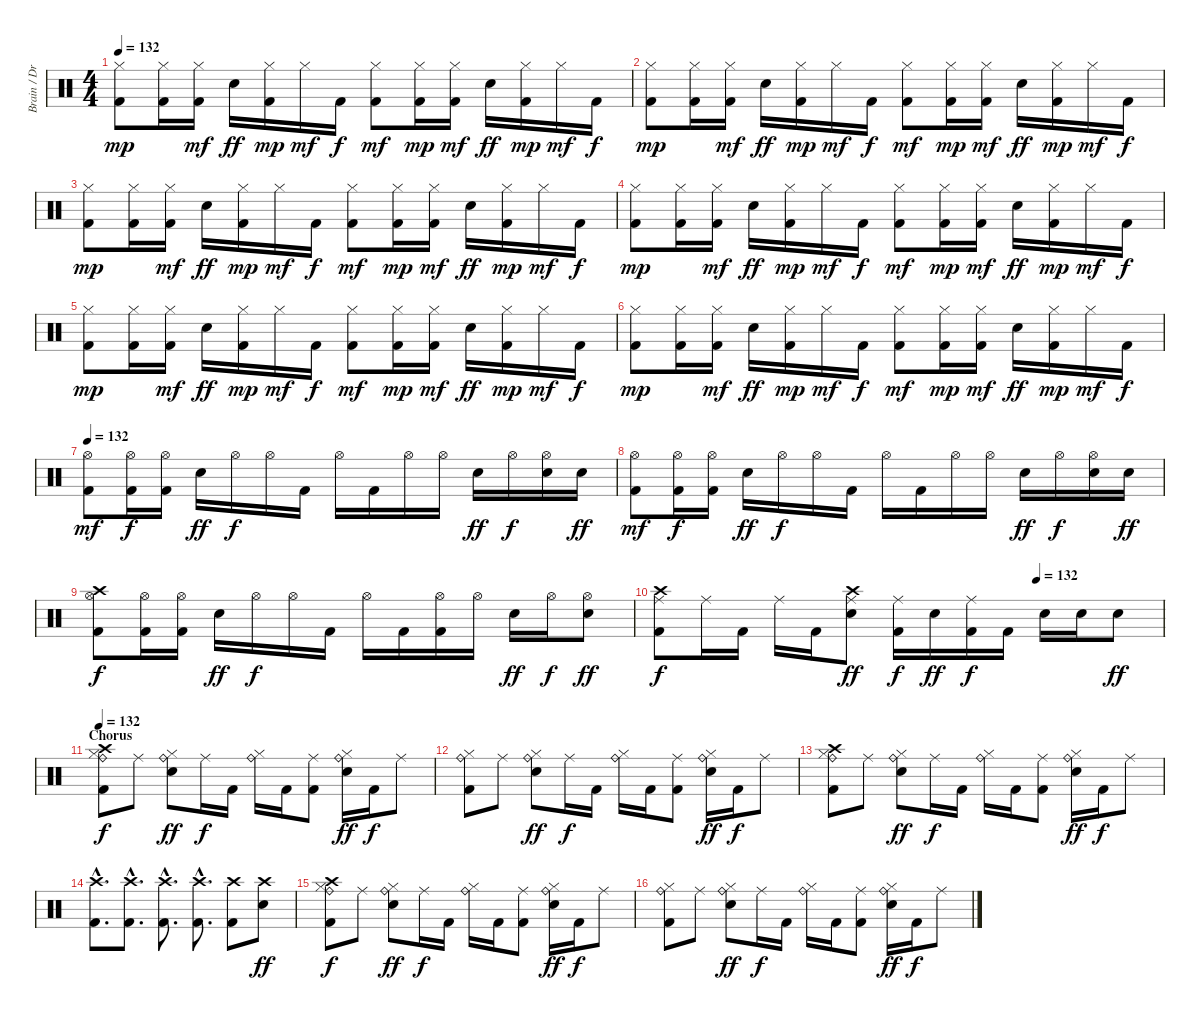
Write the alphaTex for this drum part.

\track ("Brain / Drums" "Brain / Dr") {instrument percussion}
\staff {score}
\articulation defaults
\ts (4 4)
\tempo 132
\clef neutral
\ks c
("Hi-Hat (closed)" "Kick (hit) 2").8{dy mp} ("Hi-Hat (closed)" "Kick (hit) 2").16 ("Hi-Hat (closed)" "Kick (hit) 2").16{dy mf} "Electric Snare (hit)".16{dy ff} ("Hi-Hat (closed)" "Kick (hit) 2").16{dy mp} "Hi-Hat (closed)".16{dy mf} "Kick (hit) 2".16{dy f} ("Hi-Hat (closed)" "Kick (hit) 2").8{dy mf} ("Hi-Hat (closed)" "Kick (hit) 2").16{dy mp} ("Hi-Hat (closed)" "Kick (hit) 2").16{dy mf} "Electric Snare (hit)".16{dy ff} ("Hi-Hat (closed)" "Kick (hit) 2").16{dy mp} "Hi-Hat (closed)".16{dy mf} "Kick (hit) 2".16{dy f} |
("Hi-Hat (closed)" "Kick (hit) 2").8{dy mp} ("Hi-Hat (closed)" "Kick (hit) 2").16 ("Hi-Hat (closed)" "Kick (hit) 2").16{dy mf} "Electric Snare (hit)".16{dy ff} ("Hi-Hat (closed)" "Kick (hit) 2").16{dy mp} "Hi-Hat (closed)".16{dy mf} "Kick (hit) 2".16{dy f} ("Hi-Hat (closed)" "Kick (hit) 2").8{dy mf} ("Hi-Hat (closed)" "Kick (hit) 2").16{dy mp} ("Hi-Hat (closed)" "Kick (hit) 2").16{dy mf} "Electric Snare (hit)".16{dy ff} ("Hi-Hat (closed)" "Kick (hit) 2").16{dy mp} "Hi-Hat (closed)".16{dy mf} "Kick (hit) 2".16{dy f} |
("Hi-Hat (closed)" "Kick (hit) 2").8{dy mp} ("Hi-Hat (closed)" "Kick (hit) 2").16 ("Hi-Hat (closed)" "Kick (hit) 2").16{dy mf} "Electric Snare (hit)".16{dy ff} ("Hi-Hat (closed)" "Kick (hit) 2").16{dy mp} "Hi-Hat (closed)".16{dy mf} "Kick (hit) 2".16{dy f} ("Hi-Hat (closed)" "Kick (hit) 2").8{dy mf} ("Hi-Hat (closed)" "Kick (hit) 2").16{dy mp} ("Hi-Hat (closed)" "Kick (hit) 2").16{dy mf} "Electric Snare (hit)".16{dy ff} ("Hi-Hat (closed)" "Kick (hit) 2").16{dy mp} "Hi-Hat (closed)".16{dy mf} "Kick (hit) 2".16{dy f} |
("Hi-Hat (closed)" "Kick (hit) 2").8{dy mp} ("Hi-Hat (closed)" "Kick (hit) 2").16 ("Hi-Hat (closed)" "Kick (hit) 2").16{dy mf} "Electric Snare (hit)".16{dy ff} ("Hi-Hat (closed)" "Kick (hit) 2").16{dy mp} "Hi-Hat (closed)".16{dy mf} "Kick (hit) 2".16{dy f} ("Hi-Hat (closed)" "Kick (hit) 2").8{dy mf} ("Hi-Hat (closed)" "Kick (hit) 2").16{dy mp} ("Hi-Hat (closed)" "Kick (hit) 2").16{dy mf} "Electric Snare (hit)".16{dy ff} ("Hi-Hat (closed)" "Kick (hit) 2").16{dy mp} "Hi-Hat (closed)".16{dy mf} "Kick (hit) 2".16{dy f} |
("Hi-Hat (closed)" "Kick (hit) 2").8{dy mp} ("Hi-Hat (closed)" "Kick (hit) 2").16 ("Hi-Hat (closed)" "Kick (hit) 2").16{dy mf} "Electric Snare (hit)".16{dy ff} ("Hi-Hat (closed)" "Kick (hit) 2").16{dy mp} "Hi-Hat (closed)".16{dy mf} "Kick (hit) 2".16{dy f} ("Hi-Hat (closed)" "Kick (hit) 2").8{dy mf} ("Hi-Hat (closed)" "Kick (hit) 2").16{dy mp} ("Hi-Hat (closed)" "Kick (hit) 2").16{dy mf} "Electric Snare (hit)".16{dy ff} ("Hi-Hat (closed)" "Kick (hit) 2").16{dy mp} "Hi-Hat (closed)".16{dy mf} "Kick (hit) 2".16{dy f} |
("Hi-Hat (closed)" "Kick (hit) 2").8{dy mp} ("Hi-Hat (closed)" "Kick (hit) 2").16 ("Hi-Hat (closed)" "Kick (hit) 2").16{dy mf} "Electric Snare (hit)".16{dy ff} ("Hi-Hat (closed)" "Kick (hit) 2").16{dy mp} "Hi-Hat (closed)".16{dy mf} "Kick (hit) 2".16{dy f} ("Hi-Hat (closed)" "Kick (hit) 2").8{dy mf} ("Hi-Hat (closed)" "Kick (hit) 2").16{dy mp} ("Hi-Hat (closed)" "Kick (hit) 2").16{dy mf} "Electric Snare (hit)".16{dy ff} ("Hi-Hat (closed)" "Kick (hit) 2").16{dy mp} "Hi-Hat (closed)".16{dy mf} "Kick (hit) 2".16{dy f} |
\tempo 132
("Hi-Hat (open)" "Kick (hit) 2").8{dy mf} ("Hi-Hat (open)" "Kick (hit) 2").16{dy f} ("Hi-Hat (open)" "Kick (hit) 2").16 "Electric Snare (hit)".16{dy ff} "Hi-Hat (open)".16{dy f} "Hi-Hat (open)".16 "Kick (hit) 2".16 "Hi-Hat (open)".16 "Kick (hit) 2".16 "Hi-Hat (open)".16 "Hi-Hat (open)".16 "Electric Snare (hit)".16{dy ff} "Hi-Hat (open)".16{dy f} ("Hi-Hat (open)" "Electric Snare (hit)").16 "Electric Snare (hit)".16{dy ff} |
("Hi-Hat (open)" "Kick (hit) 2").8{dy mf} ("Hi-Hat (open)" "Kick (hit) 2").16{dy f} ("Hi-Hat (open)" "Kick (hit) 2").16 "Electric Snare (hit)".16{dy ff} "Hi-Hat (open)".16{dy f} "Hi-Hat (open)".16 "Kick (hit) 2".16 "Hi-Hat (open)".16 "Kick (hit) 2".16 "Hi-Hat (open)".16 "Hi-Hat (open)".16 "Electric Snare (hit)".16{dy ff} "Hi-Hat (open)".16{dy f} ("Hi-Hat (open)" "Electric Snare (hit)").16 "Electric Snare (hit)".16{dy ff} |
("Crash high (hit)" "Hi-Hat (open)" "Kick (hit) 2").8{dy f} ("Hi-Hat (open)" "Kick (hit) 2").16 ("Hi-Hat (open)" "Kick (hit) 2").16 "Electric Snare (hit)".16{dy ff} "Hi-Hat (open)".16{dy f} "Hi-Hat (open)".16 "Kick (hit) 2".16 "Hi-Hat (open)".16 "Kick (hit) 2".16 ("Hi-Hat (open)" "Kick (hit) 2").16 "Hi-Hat (open)".16 "Electric Snare (hit)".16{dy ff} "Hi-Hat (open)".16{dy f} ("Hi-Hat (open)" "Electric Snare (hit)").8{dy ff} |
\tempo (132 0.75)
("Crash high (hit)" "Ride (middle)" "Kick (hit) 2").8{dy f} "Ride (middle)".16 "Kick (hit) 2".16 "Ride (middle)".16 "Kick (hit) 2".16 ("Crash high (hit)" "Ride (middle)" "Electric Snare (hit)").8{dy ff} ("Ride (middle)" "Kick (hit) 2").16{dy f} "Electric Snare (hit)".16{dy ff} ("Ride (middle)" "Kick (hit) 2").16{dy f} "Kick (hit) 2".16 "Electric Snare (hit)".16 "Electric Snare (hit)".16 "Electric Snare (hit)".8{dy ff} |
\section ("" "Chorus")
\tempo 132
("Crash high (hit)" "Hi-Hat (closed)" "Ride (bell)" "Kick (hit) 2").8{dy f} "Ride (middle)".8 ("Hi-Hat (closed)" "Ride (bell)" "Electric Snare (hit)").8{dy ff} "Ride (middle)".16{dy f} "Kick (hit) 2".16 ("Hi-Hat (closed)" "Ride (bell)").16 "Kick (hit) 2".16 ("Ride (middle)" "Kick (hit) 2").8 ("Hi-Hat (closed)" "Ride (bell)" "Electric Snare (hit)").16{dy ff} "Kick (hit) 2".16{dy f} "Ride (middle)".8 |
("Hi-Hat (closed)" "Ride (bell)" "Kick (hit) 2").8 "Ride (middle)".8 ("Hi-Hat (closed)" "Ride (bell)" "Electric Snare (hit)").8{dy ff} "Ride (middle)".16{dy f} "Kick (hit) 2".16 ("Hi-Hat (closed)" "Ride (bell)").16 "Kick (hit) 2".16 ("Ride (middle)" "Kick (hit) 2").8 ("Hi-Hat (closed)" "Ride (bell)" "Electric Snare (hit)").16{dy ff} "Kick (hit) 2".16{dy f} "Ride (middle)".8 |
("Crash high (hit)" "Hi-Hat (closed)" "Ride (bell)" "Kick (hit) 2").8 "Ride (middle)".8 ("Hi-Hat (closed)" "Ride (bell)" "Electric Snare (hit)").8{dy ff} "Ride (middle)".16{dy f} "Kick (hit) 2".16 ("Hi-Hat (closed)" "Ride (bell)").16 "Kick (hit) 2".16 ("Ride (middle)" "Kick (hit) 2").8 ("Hi-Hat (closed)" "Ride (bell)" "Electric Snare (hit)").16{dy ff} "Kick (hit) 2".16{dy f} "Ride (middle)".8 |
("Crash high (hit)"{hac} "Kick (hit) 2"{hac}).8{d} ("Crash high (hit)"{hac} "Kick (hit) 2"{hac}).8{d} ("Crash high (hit)"{hac} "Kick (hit) 2"{hac}).8{d} ("Crash high (hit)"{hac} "Kick (hit) 2"{hac}).8{d} ("Crash high (hit)" "Kick (hit) 2").8 ("Crash high (hit)" "Electric Snare (hit)").8{dy ff} |
("Crash high (hit)" "Hi-Hat (closed)" "Ride (bell)" "Kick (hit) 2").8{dy f} "Ride (middle)".8 ("Hi-Hat (closed)" "Ride (bell)" "Electric Snare (hit)").8{dy ff} "Ride (middle)".16{dy f} "Kick (hit) 2".16 ("Hi-Hat (closed)" "Ride (bell)").16 "Kick (hit) 2".16 ("Ride (middle)" "Kick (hit) 2").8 ("Hi-Hat (closed)" "Ride (bell)" "Electric Snare (hit)").16{dy ff} "Kick (hit) 2".16{dy f} "Ride (middle)".8 |
("Hi-Hat (closed)" "Ride (bell)" "Kick (hit) 2").8 "Ride (middle)".8 ("Hi-Hat (closed)" "Ride (bell)" "Electric Snare (hit)").8{dy ff} "Ride (middle)".16{dy f} "Kick (hit) 2".16 ("Hi-Hat (closed)" "Ride (bell)").16 "Kick (hit) 2".16 ("Ride (middle)" "Kick (hit) 2").8 ("Hi-Hat (closed)" "Ride (bell)" "Electric Snare (hit)").16{dy ff} "Kick (hit) 2".16{dy f} "Ride (middle)".8
